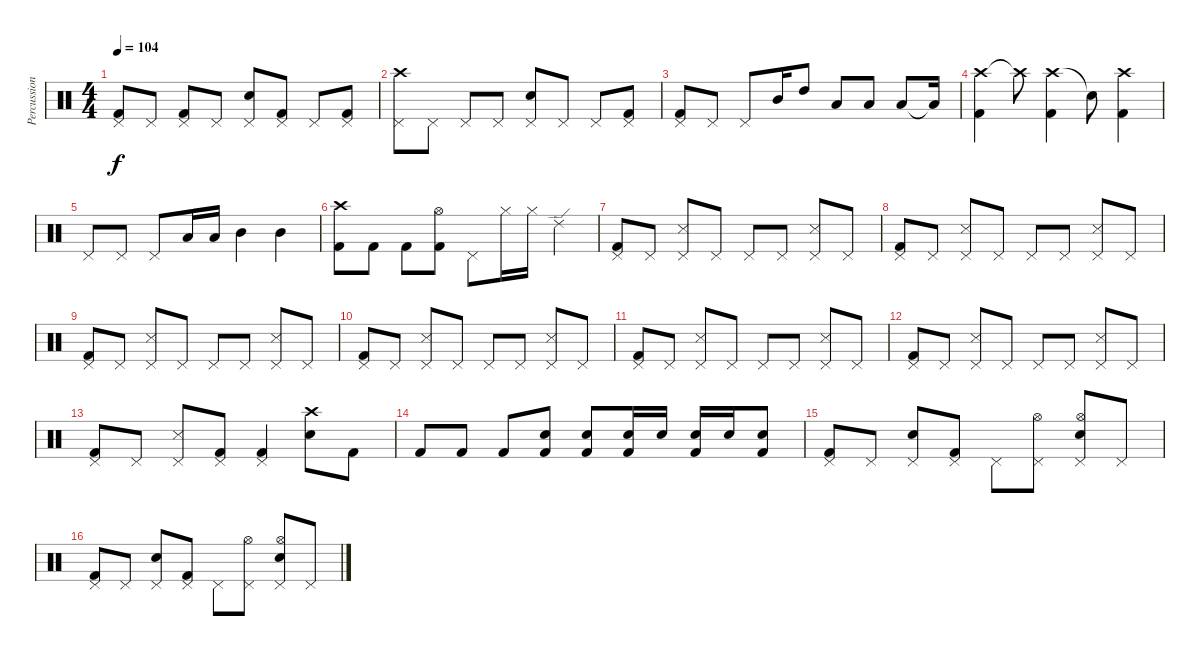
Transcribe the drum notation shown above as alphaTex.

\track ("Percussion" "Percussion") {instrument percussion}
\staff {score}
\articulation defaults
\ts (4 4)
\tempo 104
\clef neutral
\ks c
("Pedal Hi-Hat (hit)" "Kick (hit) 2").8{dy f} "Pedal Hi-Hat (hit)".8 ("Pedal Hi-Hat (hit)" "Kick (hit) 2").8 "Pedal Hi-Hat (hit)".8 ("Pedal Hi-Hat (hit)" "Snare (hit) 2").8 ("Pedal Hi-Hat (hit)" "Kick (hit) 2").8 "Pedal Hi-Hat (hit)".8 ("Pedal Hi-Hat (hit)" "Kick (hit) 2").8 |
("Pedal Hi-Hat (hit)" "Crash high (hit)").8 "Pedal Hi-Hat (hit)".8 "Pedal Hi-Hat (hit)".8 "Pedal Hi-Hat (hit)".8 ("Pedal Hi-Hat (hit)" "Snare (hit) 2").8 "Pedal Hi-Hat (hit)".8 "Pedal Hi-Hat (hit)".8 ("Pedal Hi-Hat (hit)" "Kick (hit) 2").8 |
("Pedal Hi-Hat (hit)" "Kick (hit) 2").8 "Pedal Hi-Hat (hit)".8 "Pedal Hi-Hat (hit)".8 "Mid Tom (hit)".16 "High Tom (hit)".8 "Low Tom (hit)".8 "Low Tom (hit)".8 "Low Tom (hit)".8 "Low Tom (hit)"{t}.16 |
("Crash high (hit)" "Kick (hit) 2").4 "Crash high (hit)"{t}.8 ("Crash high (hit)" "Kick (hit) 2").4 "Snare (hit)"{t}.8 ("Crash high (hit)" "Kick (hit) 2").4 |
"Pedal Hi-Hat (hit)".8 "Pedal Hi-Hat (hit)".8 "Pedal Hi-Hat (hit)".8 "Low Tom (hit)".16 "Low Tom (hit)".16 "Mid Tom (hit)".4 "Mid Tom (hit)".4 |
("Crash high (hit)" "Kick (hit) 2").8 "Kick (hit) 2".8 "Kick (hit) 2".8 ("Hi-Hat (open)" "Kick (hit) 2").8 "Pedal Hi-Hat (hit)".8 "Hi-Hat (closed)".16 "Hi-Hat (closed)".16 "Ride (edge) 2".4 |
("Pedal Hi-Hat (hit)" "Kick (hit) 2").8 "Pedal Hi-Hat (hit)".8 ("Pedal Hi-Hat (hit)" "Snare (side stick) 3").8 "Pedal Hi-Hat (hit)".8 "Pedal Hi-Hat (hit)".8 "Pedal Hi-Hat (hit)".8 ("Pedal Hi-Hat (hit)" "Snare (side stick) 3").8 "Pedal Hi-Hat (hit)".8 |
("Pedal Hi-Hat (hit)" "Kick (hit) 2").8 "Pedal Hi-Hat (hit)".8 ("Pedal Hi-Hat (hit)" "Snare (side stick) 3").8 "Pedal Hi-Hat (hit)".8 "Pedal Hi-Hat (hit)".8 "Pedal Hi-Hat (hit)".8 ("Pedal Hi-Hat (hit)" "Snare (side stick) 3").8 "Pedal Hi-Hat (hit)".8 |
("Pedal Hi-Hat (hit)" "Kick (hit) 2").8 "Pedal Hi-Hat (hit)".8 ("Pedal Hi-Hat (hit)" "Snare (side stick) 3").8 "Pedal Hi-Hat (hit)".8 "Pedal Hi-Hat (hit)".8 "Pedal Hi-Hat (hit)".8 ("Pedal Hi-Hat (hit)" "Snare (side stick) 3").8 "Pedal Hi-Hat (hit)".8 |
("Pedal Hi-Hat (hit)" "Kick (hit) 2").8 "Pedal Hi-Hat (hit)".8 ("Pedal Hi-Hat (hit)" "Snare (side stick) 3").8 "Pedal Hi-Hat (hit)".8 "Pedal Hi-Hat (hit)".8 "Pedal Hi-Hat (hit)".8 ("Pedal Hi-Hat (hit)" "Snare (side stick) 3").8 "Pedal Hi-Hat (hit)".8 |
("Pedal Hi-Hat (hit)" "Kick (hit) 2").8 "Pedal Hi-Hat (hit)".8 ("Pedal Hi-Hat (hit)" "Snare (side stick) 3").8 "Pedal Hi-Hat (hit)".8 "Pedal Hi-Hat (hit)".8 "Pedal Hi-Hat (hit)".8 ("Pedal Hi-Hat (hit)" "Snare (side stick) 3").8 "Pedal Hi-Hat (hit)".8 |
("Pedal Hi-Hat (hit)" "Kick (hit) 2").8 "Pedal Hi-Hat (hit)".8 ("Pedal Hi-Hat (hit)" "Snare (side stick) 3").8 "Pedal Hi-Hat (hit)".8 "Pedal Hi-Hat (hit)".8 "Pedal Hi-Hat (hit)".8 ("Pedal Hi-Hat (hit)" "Snare (side stick) 3").8 "Pedal Hi-Hat (hit)".8 |
("Pedal Hi-Hat (hit)" "Kick (hit) 2").8 "Pedal Hi-Hat (hit)".8 ("Pedal Hi-Hat (hit)" "Snare (side stick) 3").8 ("Pedal Hi-Hat (hit)" "Kick (hit) 2").8 ("Pedal Hi-Hat (hit)" "Kick (hit) 2").4 ("Electric Snare (hit)" "Crash high (hit)").8 "Kick (hit) 2".8 |
"Kick (hit) 2".8 "Kick (hit) 2".8 "Kick (hit) 2".8 ("Kick (hit) 2" "Electric Snare (hit)").8 ("Kick (hit) 2" "Electric Snare (hit)").8 ("Kick (hit) 2" "Electric Snare (hit)").16 "Electric Snare (hit)".16 ("Kick (hit) 2" "Electric Snare (hit)").16 "Electric Snare (hit)".16 ("Kick (hit) 2" "Electric Snare (hit)").8 |
("Pedal Hi-Hat (hit)" "Kick (hit) 2").8 "Pedal Hi-Hat (hit)".8 ("Pedal Hi-Hat (hit)" "Electric Snare (hit)").8 ("Pedal Hi-Hat (hit)" "Kick (hit) 2").8 "Pedal Hi-Hat (hit)".8 ("Pedal Hi-Hat (hit)" "Hi-Hat (open)").8 ("Pedal Hi-Hat (hit)" "Electric Snare (hit)" "Hi-Hat (open)").8 "Pedal Hi-Hat (hit)".8 |
("Pedal Hi-Hat (hit)" "Kick (hit) 2").8 "Pedal Hi-Hat (hit)".8 ("Pedal Hi-Hat (hit)" "Electric Snare (hit)").8 ("Pedal Hi-Hat (hit)" "Kick (hit) 2").8 "Pedal Hi-Hat (hit)".8 ("Pedal Hi-Hat (hit)" "Hi-Hat (open)").8 ("Pedal Hi-Hat (hit)" "Electric Snare (hit)" "Hi-Hat (open)").8 "Pedal Hi-Hat (hit)".8
